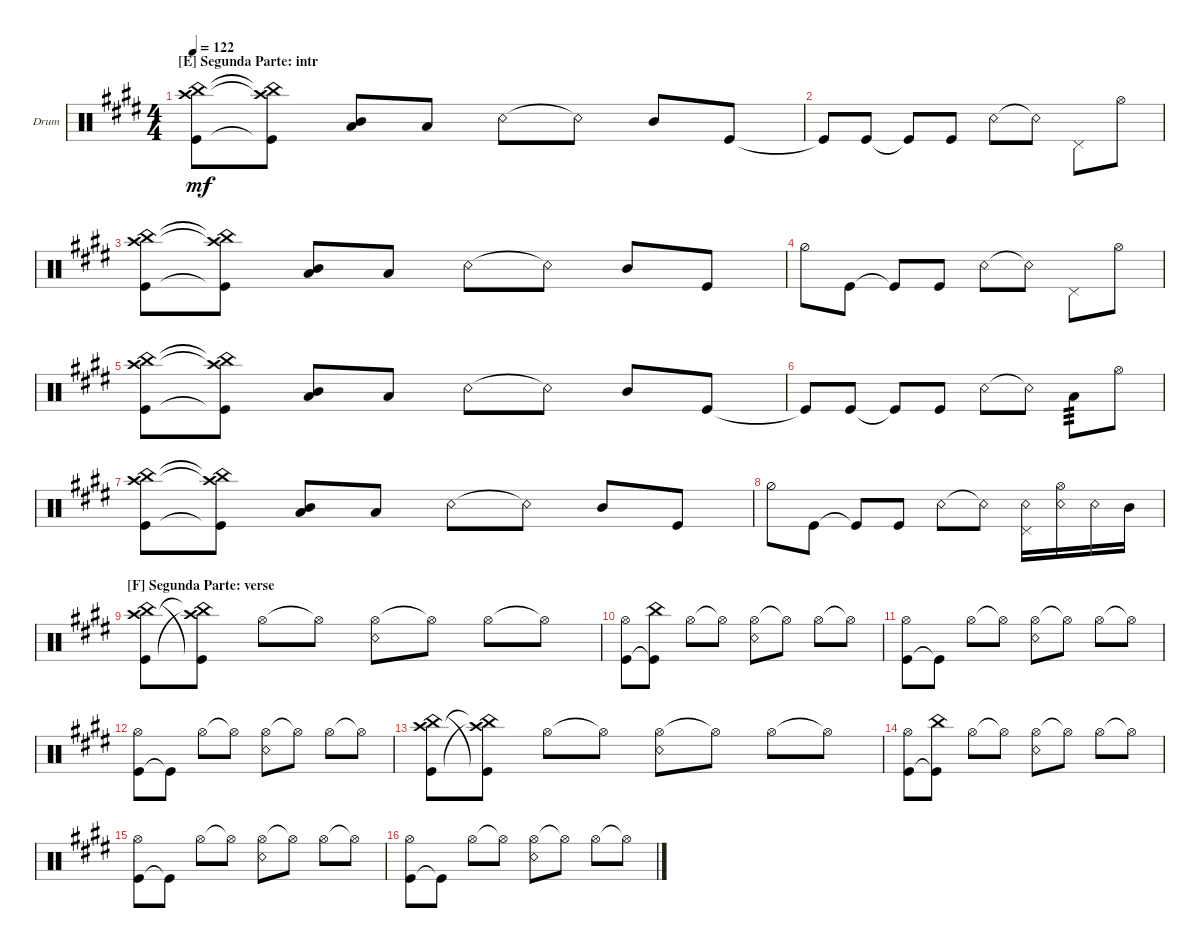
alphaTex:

\defaultSystemsLayout 4
\bracketExtendMode groupsimilarinstruments
\firstSystemTrackNameOrientation horizontal
\otherSystemsTrackNameOrientation horizontal
\track ("Bateria" "Drum") {multiBarRest instrument percussion}
\staff {score}
\articulation defaults
\ts (4 4)
\section ("E" "Segunda Parte: intr")
\tempo 122
\clef neutral
\ks e
("Kick (hit)" "China (hit)" "Crash high (hit)").8{dy mf} ("Kick (hit)"{t} "China (hit)"{t} "Crash high (hit)"{t}).8 ("Low Tom (hit)" "Mid Tom (hit)").8 "Low Tom (hit)".8 "Snare (rim shot)".8 "Snare (rim shot)"{t}.8 "Mid Tom (hit)".8 "Kick (hit)".8 |
"Kick (hit)"{t}.8 "Kick (hit)".8 "Kick (hit)"{t}.8 "Kick (hit)".8 "Snare (rim shot)".8 "Snare (rim shot)"{t}.8 "Pedal Hi-Hat (hit)".8 "Hi-Hat (open)".8 |
("Kick (hit)" "China (hit)" "Crash high (hit)").8 ("Kick (hit)"{t} "China (hit)"{t} "Crash high (hit)"{t}).8 ("Low Tom (hit)" "Mid Tom (hit)").8 "Low Tom (hit)".8 "Snare (rim shot)".8 "Snare (rim shot)"{t}.8 "Mid Tom (hit)".8 "Kick (hit)".8 |
"Hi-Hat (half)".8 "Kick (hit)".8 "Kick (hit)"{t}.8 "Kick (hit)".8 "Snare (rim shot)".8 "Snare (rim shot)"{t}.8 "Pedal Hi-Hat (hit)".8 "Hi-Hat (open)".8 |
("Kick (hit)" "China (hit)" "Crash high (hit)").8 ("Kick (hit)"{t} "China (hit)"{t} "Crash high (hit)"{t}).8 ("Low Tom (hit)" "Mid Tom (hit)").8 "Low Tom (hit)".8 "Snare (rim shot)".8 "Snare (rim shot)"{t}.8 "Mid Tom (hit)".8 "Kick (hit)".8 |
"Kick (hit)"{t}.8 "Kick (hit)".8 "Kick (hit)"{t}.8 "Kick (hit)".8 "Snare (rim shot)".8 "Snare (rim shot)"{t}.8 "Low Tom (hit)".8{tp 3} "Hi-Hat (open)".8 |
("Kick (hit)" "China (hit)" "Crash high (hit)").8 ("Kick (hit)"{t} "China (hit)"{t} "Crash high (hit)"{t}).8 ("Low Tom (hit)" "Mid Tom (hit)").8 "Low Tom (hit)".8 "Snare (rim shot)".8 "Snare (rim shot)"{t}.8 "Mid Tom (hit)".8 "Kick (hit)".8 |
"Hi-Hat (half)".8 "Kick (hit)".8 "Kick (hit)"{t}.8 "Kick (hit)".8 "Snare (rim shot)".8 "Snare (rim shot)"{t}.8 ("Pedal Hi-Hat (hit)" "Snare (rim shot)").16 ("Hi-Hat (open)" "Snare (rim shot)").16 "Snare (rim shot)".16 "Mid Tom (hit)".16 |
\section ("F" "Segunda Parte: verse")
("China (hit)" "Crash high (hit)" "Kick (hit)").8 ("Kick (hit)"{t} "China (hit)"{t} "Crash high (hit)"{t}).8 "Hi-Hat (open)".8 "Hi-Hat (open)"{t}.8 ("Hi-Hat (open)" "Snare (rim shot)").8 "Hi-Hat (open)"{t}.8 "Hi-Hat (open)".8 "Hi-Hat (open)"{t}.8 |
("Kick (hit)" "Hi-Hat (open)").8 ("Kick (hit)"{t} "China (hit)").8 "Hi-Hat (open)".8 "Hi-Hat (open)"{t}.8 ("Hi-Hat (open)" "Snare (rim shot)").8 "Hi-Hat (open)"{t}.8 "Hi-Hat (open)".8 "Hi-Hat (open)"{t}.8 |
("Kick (hit)" "Hi-Hat (open)").8 "Kick (hit)"{t}.8 "Hi-Hat (open)".8 "Hi-Hat (open)"{t}.8 ("Hi-Hat (open)" "Snare (rim shot)").8 "Hi-Hat (open)"{t}.8 "Hi-Hat (open)".8 "Hi-Hat (open)"{t}.8 |
("Kick (hit)" "Hi-Hat (open)").8 "Kick (hit)"{t}.8 "Hi-Hat (open)".8 "Hi-Hat (open)"{t}.8 ("Hi-Hat (open)" "Snare (rim shot)").8 "Hi-Hat (open)"{t}.8 "Hi-Hat (open)".8 "Hi-Hat (open)"{t}.8 |
("China (hit)" "Crash high (hit)" "Kick (hit)").8 ("Kick (hit)"{t} "China (hit)"{t} "Crash high (hit)"{t}).8 "Hi-Hat (open)".8 "Hi-Hat (open)"{t}.8 ("Hi-Hat (open)" "Snare (rim shot)").8 "Hi-Hat (open)"{t}.8 "Hi-Hat (open)".8 "Hi-Hat (open)"{t}.8 |
("Kick (hit)" "Hi-Hat (open)").8 ("Kick (hit)"{t} "China (hit)").8 "Hi-Hat (open)".8 "Hi-Hat (open)"{t}.8 ("Hi-Hat (open)" "Snare (rim shot)").8 "Hi-Hat (open)"{t}.8 "Hi-Hat (open)".8 "Hi-Hat (open)"{t}.8 |
("Kick (hit)" "Hi-Hat (open)").8 "Kick (hit)"{t}.8 "Hi-Hat (open)".8 "Hi-Hat (open)"{t}.8 ("Hi-Hat (open)" "Snare (rim shot)").8 "Hi-Hat (open)"{t}.8 "Hi-Hat (open)".8 "Hi-Hat (open)"{t}.8 |
("Kick (hit)" "Hi-Hat (open)").8 "Kick (hit)"{t}.8 "Hi-Hat (open)".8 "Hi-Hat (open)"{t}.8 ("Hi-Hat (open)" "Snare (rim shot)").8 "Hi-Hat (open)"{t}.8 "Hi-Hat (open)".8 "Hi-Hat (open)"{t}.8
